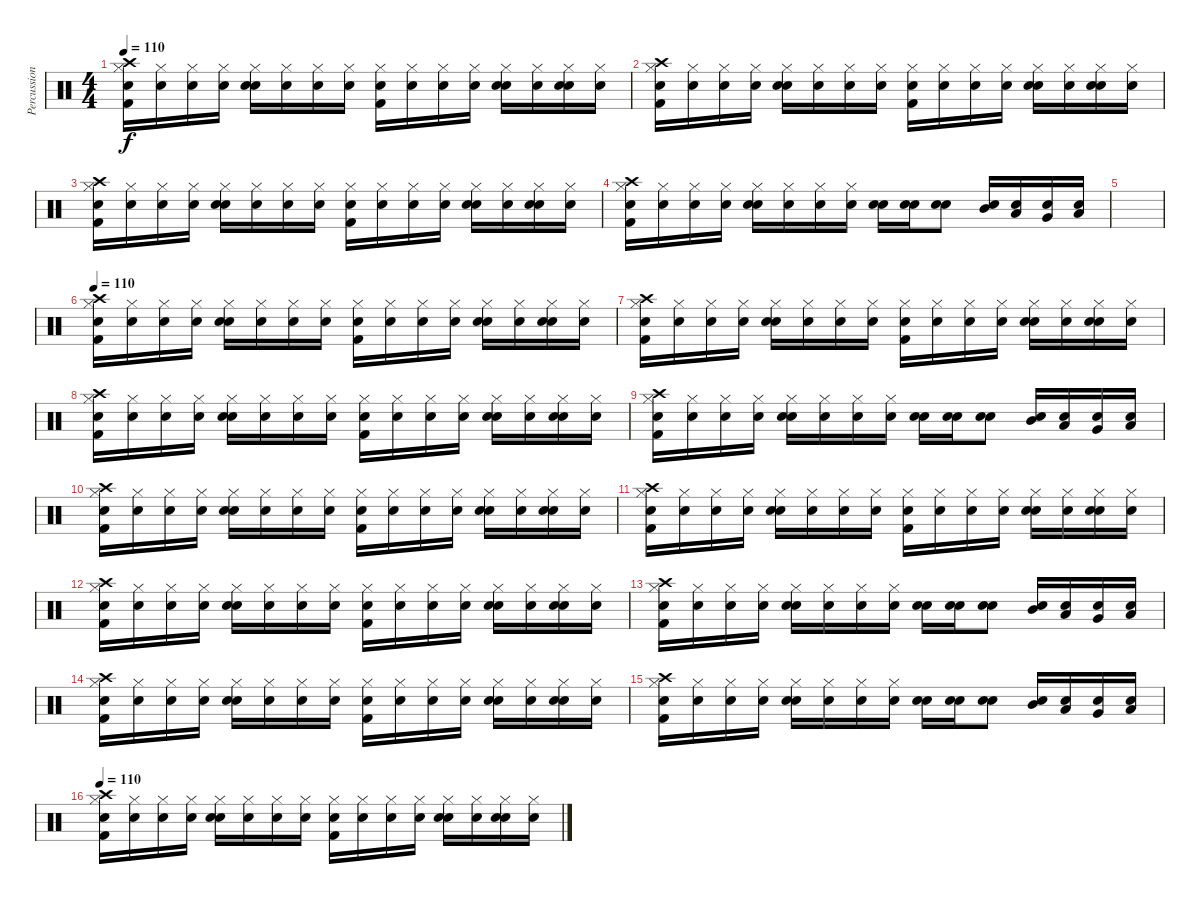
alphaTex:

\track ("Percussion" "Percussion") {instrument percussion}
\staff {score}
\articulation defaults
\ts (4 4)
\tempo 110
\clef neutral
\ks c
("Snare (hit)" "Kick (hit) 2" "Hi-Hat (closed)" "Crash high (hit)").16{dy f} ("Snare (hit)" "Hi-Hat (closed)").16 ("Snare (hit)" "Hi-Hat (closed)").16 ("Snare (hit)" "Hi-Hat (closed)").16 ("Snare (hit)" "Snare (hit) 2" "Hi-Hat (closed)").16 ("Snare (hit)" "Hi-Hat (closed)").16 ("Snare (hit)" "Hi-Hat (closed)").16 ("Snare (hit)" "Hi-Hat (closed)").16 ("Snare (hit)" "Kick (hit) 2" "Hi-Hat (closed)").16 ("Snare (hit)" "Hi-Hat (closed)").16 ("Snare (hit)" "Hi-Hat (closed)").16 ("Snare (hit)" "Hi-Hat (closed)").16 ("Snare (hit)" "Snare (hit) 2" "Hi-Hat (closed)").16 ("Snare (hit)" "Hi-Hat (closed)").16 ("Snare (hit)" "Snare (hit) 2" "Hi-Hat (closed)").16 ("Snare (hit)" "Hi-Hat (closed)").16 |
("Snare (hit)" "Kick (hit) 2" "Hi-Hat (closed)" "Crash high (hit)").16 ("Snare (hit)" "Hi-Hat (closed)").16 ("Snare (hit)" "Hi-Hat (closed)").16 ("Snare (hit)" "Hi-Hat (closed)").16 ("Snare (hit)" "Snare (hit) 2" "Hi-Hat (closed)").16 ("Snare (hit)" "Hi-Hat (closed)").16 ("Snare (hit)" "Hi-Hat (closed)").16 ("Snare (hit)" "Hi-Hat (closed)").16 ("Snare (hit)" "Kick (hit) 2" "Hi-Hat (closed)").16 ("Snare (hit)" "Hi-Hat (closed)").16 ("Snare (hit)" "Hi-Hat (closed)").16 ("Snare (hit)" "Hi-Hat (closed)").16 ("Snare (hit)" "Snare (hit) 2" "Hi-Hat (closed)").16 ("Snare (hit)" "Hi-Hat (closed)").16 ("Snare (hit)" "Snare (hit) 2" "Hi-Hat (closed)").16 ("Snare (hit)" "Hi-Hat (closed)").16 |
("Snare (hit)" "Kick (hit) 2" "Hi-Hat (closed)" "Crash high (hit)").16 ("Snare (hit)" "Hi-Hat (closed)").16 ("Snare (hit)" "Hi-Hat (closed)").16 ("Snare (hit)" "Hi-Hat (closed)").16 ("Snare (hit)" "Snare (hit) 2" "Hi-Hat (closed)").16 ("Snare (hit)" "Hi-Hat (closed)").16 ("Snare (hit)" "Hi-Hat (closed)").16 ("Snare (hit)" "Hi-Hat (closed)").16 ("Snare (hit)" "Kick (hit) 2" "Hi-Hat (closed)").16 ("Snare (hit)" "Hi-Hat (closed)").16 ("Snare (hit)" "Hi-Hat (closed)").16 ("Snare (hit)" "Hi-Hat (closed)").16 ("Snare (hit)" "Snare (hit) 2" "Hi-Hat (closed)").16 ("Snare (hit)" "Hi-Hat (closed)").16 ("Snare (hit)" "Snare (hit) 2" "Hi-Hat (closed)").16 ("Snare (hit)" "Hi-Hat (closed)").16 |
("Snare (hit)" "Kick (hit) 2" "Hi-Hat (closed)" "Crash high (hit)").16 ("Snare (hit)" "Hi-Hat (closed)").16 ("Snare (hit)" "Hi-Hat (closed)").16 ("Snare (hit)" "Hi-Hat (closed)").16 ("Snare (hit)" "Snare (hit) 2" "Hi-Hat (closed)").16 ("Snare (hit)" "Hi-Hat (closed)").16 ("Snare (hit)" "Hi-Hat (closed)").16 ("Snare (hit)" "Hi-Hat (closed)").16 ("Snare (hit)" "Snare (hit) 2").16 ("Snare (hit)" "Snare (hit) 2").16 ("Snare (hit)" "Snare (hit) 2").8 ("Snare (hit)" "Mid Tom (hit)").16 ("Snare (hit)" "Low Tom (hit)").16 ("Snare (hit)" "Very Low Tom (hit)").16 ("Snare (hit)" "Low Floor Tom (hit)").16 |
|
\tempo 110
("Snare (hit)" "Kick (hit) 2" "Hi-Hat (closed)" "Crash high (hit)").16 ("Snare (hit)" "Hi-Hat (closed)").16 ("Snare (hit)" "Hi-Hat (closed)").16 ("Snare (hit)" "Hi-Hat (closed)").16 ("Snare (hit)" "Snare (hit) 2" "Hi-Hat (closed)").16 ("Snare (hit)" "Hi-Hat (closed)").16 ("Snare (hit)" "Hi-Hat (closed)").16 ("Snare (hit)" "Hi-Hat (closed)").16 ("Snare (hit)" "Kick (hit) 2" "Hi-Hat (closed)").16 ("Snare (hit)" "Hi-Hat (closed)").16 ("Snare (hit)" "Hi-Hat (closed)").16 ("Snare (hit)" "Hi-Hat (closed)").16 ("Snare (hit)" "Snare (hit) 2" "Hi-Hat (closed)").16 ("Snare (hit)" "Hi-Hat (closed)").16 ("Snare (hit)" "Snare (hit) 2" "Hi-Hat (closed)").16 ("Snare (hit)" "Hi-Hat (closed)").16 |
("Snare (hit)" "Kick (hit) 2" "Hi-Hat (closed)" "Crash high (hit)").16 ("Snare (hit)" "Hi-Hat (closed)").16 ("Snare (hit)" "Hi-Hat (closed)").16 ("Snare (hit)" "Hi-Hat (closed)").16 ("Snare (hit)" "Snare (hit) 2" "Hi-Hat (closed)").16 ("Snare (hit)" "Hi-Hat (closed)").16 ("Snare (hit)" "Hi-Hat (closed)").16 ("Snare (hit)" "Hi-Hat (closed)").16 ("Snare (hit)" "Kick (hit) 2" "Hi-Hat (closed)").16 ("Snare (hit)" "Hi-Hat (closed)").16 ("Snare (hit)" "Hi-Hat (closed)").16 ("Snare (hit)" "Hi-Hat (closed)").16 ("Snare (hit)" "Snare (hit) 2" "Hi-Hat (closed)").16 ("Snare (hit)" "Hi-Hat (closed)").16 ("Snare (hit)" "Snare (hit) 2" "Hi-Hat (closed)").16 ("Snare (hit)" "Hi-Hat (closed)").16 |
("Snare (hit)" "Kick (hit) 2" "Hi-Hat (closed)" "Crash high (hit)").16 ("Snare (hit)" "Hi-Hat (closed)").16 ("Snare (hit)" "Hi-Hat (closed)").16 ("Snare (hit)" "Hi-Hat (closed)").16 ("Snare (hit)" "Snare (hit) 2" "Hi-Hat (closed)").16 ("Snare (hit)" "Hi-Hat (closed)").16 ("Snare (hit)" "Hi-Hat (closed)").16 ("Snare (hit)" "Hi-Hat (closed)").16 ("Snare (hit)" "Kick (hit) 2" "Hi-Hat (closed)").16 ("Snare (hit)" "Hi-Hat (closed)").16 ("Snare (hit)" "Hi-Hat (closed)").16 ("Snare (hit)" "Hi-Hat (closed)").16 ("Snare (hit)" "Snare (hit) 2" "Hi-Hat (closed)").16 ("Snare (hit)" "Hi-Hat (closed)").16 ("Snare (hit)" "Snare (hit) 2" "Hi-Hat (closed)").16 ("Snare (hit)" "Hi-Hat (closed)").16 |
("Snare (hit)" "Kick (hit) 2" "Hi-Hat (closed)" "Crash high (hit)").16 ("Snare (hit)" "Hi-Hat (closed)").16 ("Snare (hit)" "Hi-Hat (closed)").16 ("Snare (hit)" "Hi-Hat (closed)").16 ("Snare (hit)" "Snare (hit) 2" "Hi-Hat (closed)").16 ("Snare (hit)" "Hi-Hat (closed)").16 ("Snare (hit)" "Hi-Hat (closed)").16 ("Snare (hit)" "Hi-Hat (closed)").16 ("Snare (hit)" "Snare (hit) 2").16 ("Snare (hit)" "Snare (hit) 2").16 ("Snare (hit)" "Snare (hit) 2").8 ("Snare (hit)" "Mid Tom (hit)").16 ("Snare (hit)" "Low Tom (hit)").16 ("Snare (hit)" "Very Low Tom (hit)").16 ("Snare (hit)" "Low Floor Tom (hit)").16 |
("Snare (hit)" "Kick (hit) 2" "Hi-Hat (closed)" "Crash high (hit)").16 ("Snare (hit)" "Hi-Hat (closed)").16 ("Snare (hit)" "Hi-Hat (closed)").16 ("Snare (hit)" "Hi-Hat (closed)").16 ("Snare (hit)" "Snare (hit) 2" "Hi-Hat (closed)").16 ("Snare (hit)" "Hi-Hat (closed)").16 ("Snare (hit)" "Hi-Hat (closed)").16 ("Snare (hit)" "Hi-Hat (closed)").16 ("Snare (hit)" "Kick (hit) 2" "Hi-Hat (closed)").16 ("Snare (hit)" "Hi-Hat (closed)").16 ("Snare (hit)" "Hi-Hat (closed)").16 ("Snare (hit)" "Hi-Hat (closed)").16 ("Snare (hit)" "Snare (hit) 2" "Hi-Hat (closed)").16 ("Snare (hit)" "Hi-Hat (closed)").16 ("Snare (hit)" "Snare (hit) 2" "Hi-Hat (closed)").16 ("Snare (hit)" "Hi-Hat (closed)").16 |
("Snare (hit)" "Kick (hit) 2" "Hi-Hat (closed)" "Crash high (hit)").16 ("Snare (hit)" "Hi-Hat (closed)").16 ("Snare (hit)" "Hi-Hat (closed)").16 ("Snare (hit)" "Hi-Hat (closed)").16 ("Snare (hit)" "Snare (hit) 2" "Hi-Hat (closed)").16 ("Snare (hit)" "Hi-Hat (closed)").16 ("Snare (hit)" "Hi-Hat (closed)").16 ("Snare (hit)" "Hi-Hat (closed)").16 ("Snare (hit)" "Kick (hit) 2" "Hi-Hat (closed)").16 ("Snare (hit)" "Hi-Hat (closed)").16 ("Snare (hit)" "Hi-Hat (closed)").16 ("Snare (hit)" "Hi-Hat (closed)").16 ("Snare (hit)" "Snare (hit) 2" "Hi-Hat (closed)").16 ("Snare (hit)" "Hi-Hat (closed)").16 ("Snare (hit)" "Snare (hit) 2" "Hi-Hat (closed)").16 ("Snare (hit)" "Hi-Hat (closed)").16 |
("Snare (hit)" "Kick (hit) 2" "Hi-Hat (closed)" "Crash high (hit)").16 ("Snare (hit)" "Hi-Hat (closed)").16 ("Snare (hit)" "Hi-Hat (closed)").16 ("Snare (hit)" "Hi-Hat (closed)").16 ("Snare (hit)" "Snare (hit) 2" "Hi-Hat (closed)").16 ("Snare (hit)" "Hi-Hat (closed)").16 ("Snare (hit)" "Hi-Hat (closed)").16 ("Snare (hit)" "Hi-Hat (closed)").16 ("Snare (hit)" "Kick (hit) 2" "Hi-Hat (closed)").16 ("Snare (hit)" "Hi-Hat (closed)").16 ("Snare (hit)" "Hi-Hat (closed)").16 ("Snare (hit)" "Hi-Hat (closed)").16 ("Snare (hit)" "Snare (hit) 2" "Hi-Hat (closed)").16 ("Snare (hit)" "Hi-Hat (closed)").16 ("Snare (hit)" "Snare (hit) 2" "Hi-Hat (closed)").16 ("Snare (hit)" "Hi-Hat (closed)").16 |
("Snare (hit)" "Kick (hit) 2" "Hi-Hat (closed)" "Crash high (hit)").16 ("Snare (hit)" "Hi-Hat (closed)").16 ("Snare (hit)" "Hi-Hat (closed)").16 ("Snare (hit)" "Hi-Hat (closed)").16 ("Snare (hit)" "Snare (hit) 2" "Hi-Hat (closed)").16 ("Snare (hit)" "Hi-Hat (closed)").16 ("Snare (hit)" "Hi-Hat (closed)").16 ("Snare (hit)" "Hi-Hat (closed)").16 ("Snare (hit)" "Snare (hit) 2").16 ("Snare (hit)" "Snare (hit) 2").16 ("Snare (hit)" "Snare (hit) 2").8 ("Snare (hit)" "Mid Tom (hit)").16 ("Snare (hit)" "Low Tom (hit)").16 ("Snare (hit)" "Very Low Tom (hit)").16 ("Snare (hit)" "Low Floor Tom (hit)").16 |
("Snare (hit)" "Kick (hit) 2" "Hi-Hat (closed)" "Crash high (hit)").16 ("Snare (hit)" "Hi-Hat (closed)").16 ("Snare (hit)" "Hi-Hat (closed)").16 ("Snare (hit)" "Hi-Hat (closed)").16 ("Snare (hit)" "Snare (hit) 2" "Hi-Hat (closed)").16 ("Snare (hit)" "Hi-Hat (closed)").16 ("Snare (hit)" "Hi-Hat (closed)").16 ("Snare (hit)" "Hi-Hat (closed)").16 ("Snare (hit)" "Kick (hit) 2" "Hi-Hat (closed)").16 ("Snare (hit)" "Hi-Hat (closed)").16 ("Snare (hit)" "Hi-Hat (closed)").16 ("Snare (hit)" "Hi-Hat (closed)").16 ("Snare (hit)" "Snare (hit) 2" "Hi-Hat (closed)").16 ("Snare (hit)" "Hi-Hat (closed)").16 ("Snare (hit)" "Snare (hit) 2" "Hi-Hat (closed)").16 ("Snare (hit)" "Hi-Hat (closed)").16 |
("Snare (hit)" "Kick (hit) 2" "Hi-Hat (closed)" "Crash high (hit)").16 ("Snare (hit)" "Hi-Hat (closed)").16 ("Snare (hit)" "Hi-Hat (closed)").16 ("Snare (hit)" "Hi-Hat (closed)").16 ("Snare (hit)" "Snare (hit) 2" "Hi-Hat (closed)").16 ("Snare (hit)" "Hi-Hat (closed)").16 ("Snare (hit)" "Hi-Hat (closed)").16 ("Snare (hit)" "Hi-Hat (closed)").16 ("Snare (hit)" "Snare (hit) 2").16 ("Snare (hit)" "Snare (hit) 2").16 ("Snare (hit)" "Snare (hit) 2").8 ("Snare (hit)" "Mid Tom (hit)").16 ("Snare (hit)" "Low Tom (hit)").16 ("Snare (hit)" "Very Low Tom (hit)").16 ("Snare (hit)" "Low Floor Tom (hit)").16 |
\tempo 110
("Snare (hit)" "Kick (hit) 2" "Hi-Hat (closed)" "Crash high (hit)").16 ("Snare (hit)" "Hi-Hat (closed)").16 ("Snare (hit)" "Hi-Hat (closed)").16 ("Snare (hit)" "Hi-Hat (closed)").16 ("Snare (hit)" "Snare (hit) 2" "Hi-Hat (closed)").16 ("Snare (hit)" "Hi-Hat (closed)").16 ("Snare (hit)" "Hi-Hat (closed)").16 ("Snare (hit)" "Hi-Hat (closed)").16 ("Snare (hit)" "Kick (hit) 2" "Hi-Hat (closed)").16 ("Snare (hit)" "Hi-Hat (closed)").16 ("Snare (hit)" "Hi-Hat (closed)").16 ("Snare (hit)" "Hi-Hat (closed)").16 ("Snare (hit)" "Snare (hit) 2" "Hi-Hat (closed)").16 ("Snare (hit)" "Hi-Hat (closed)").16 ("Snare (hit)" "Snare (hit) 2" "Hi-Hat (closed)").16 ("Snare (hit)" "Hi-Hat (closed)").16
